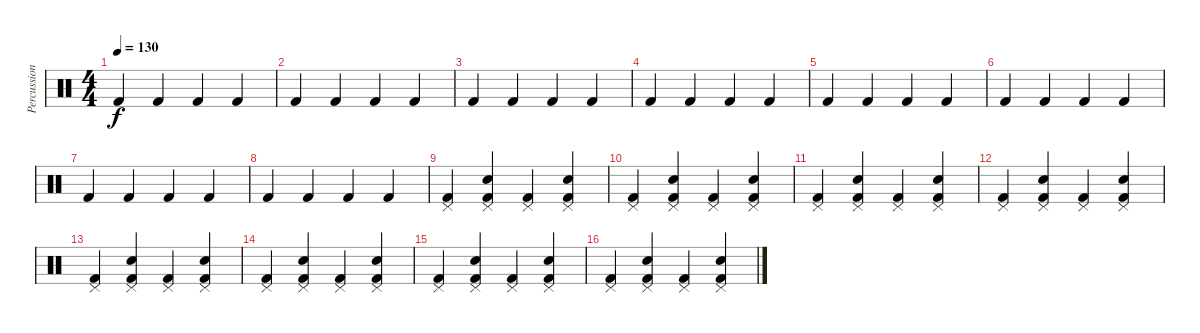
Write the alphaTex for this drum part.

\track ("Percussions" "Percussion") {instrument percussion}
\staff {score}
\articulation defaults
\ts (4 4)
\tempo 130
\clef neutral
\ks c "Kick (hit) 2".4{dy f} "Kick (hit) 2".4 "Kick (hit) 2".4 "Kick (hit) 2".4
|
"Kick (hit) 2".4 "Kick (hit) 2".4 "Kick (hit) 2".4 "Kick (hit) 2".4 |
"Kick (hit) 2".4 "Kick (hit) 2".4 "Kick (hit) 2".4 "Kick (hit) 2".4 |
"Kick (hit) 2".4 "Kick (hit) 2".4 "Kick (hit) 2".4 "Kick (hit) 2".4 |
"Kick (hit) 2".4 "Kick (hit) 2".4 "Kick (hit) 2".4 "Kick (hit) 2".4 |
"Kick (hit) 2".4 "Kick (hit) 2".4 "Kick (hit) 2".4 "Kick (hit) 2".4 |
"Kick (hit) 2".4 "Kick (hit) 2".4 "Kick (hit) 2".4 "Kick (hit) 2".4 |
"Kick (hit) 2".4 "Kick (hit) 2".4 "Kick (hit) 2".4 "Kick (hit) 2".4 |
("Pedal Hi-Hat (hit)" "Kick (hit) 2").4 ("Pedal Hi-Hat (hit)" "Snare (hit) 2" "Kick (hit) 2").4 ("Pedal Hi-Hat (hit)" "Kick (hit) 2").4 ("Pedal Hi-Hat (hit)" "Snare (hit) 2" "Kick (hit) 2").4 |
("Pedal Hi-Hat (hit)" "Kick (hit) 2").4 ("Pedal Hi-Hat (hit)" "Snare (hit) 2" "Kick (hit) 2").4 ("Pedal Hi-Hat (hit)" "Kick (hit) 2").4 ("Pedal Hi-Hat (hit)" "Snare (hit) 2" "Kick (hit) 2").4 |
("Pedal Hi-Hat (hit)" "Kick (hit) 2").4 ("Pedal Hi-Hat (hit)" "Snare (hit) 2" "Kick (hit) 2").4 ("Pedal Hi-Hat (hit)" "Kick (hit) 2").4 ("Pedal Hi-Hat (hit)" "Snare (hit) 2" "Kick (hit) 2").4 |
("Pedal Hi-Hat (hit)" "Kick (hit) 2").4 ("Pedal Hi-Hat (hit)" "Snare (hit) 2" "Kick (hit) 2").4 ("Pedal Hi-Hat (hit)" "Kick (hit) 2").4 ("Pedal Hi-Hat (hit)" "Snare (hit) 2" "Kick (hit) 2").4 |
("Pedal Hi-Hat (hit)" "Kick (hit) 2").4 ("Pedal Hi-Hat (hit)" "Snare (hit) 2" "Kick (hit) 2").4 ("Pedal Hi-Hat (hit)" "Kick (hit) 2").4 ("Pedal Hi-Hat (hit)" "Snare (hit) 2" "Kick (hit) 2").4 |
("Pedal Hi-Hat (hit)" "Kick (hit) 2").4 ("Pedal Hi-Hat (hit)" "Snare (hit) 2" "Kick (hit) 2").4 ("Pedal Hi-Hat (hit)" "Kick (hit) 2").4 ("Pedal Hi-Hat (hit)" "Snare (hit) 2" "Kick (hit) 2").4 |
("Pedal Hi-Hat (hit)" "Kick (hit) 2").4 ("Pedal Hi-Hat (hit)" "Snare (hit) 2" "Kick (hit) 2").4 ("Pedal Hi-Hat (hit)" "Kick (hit) 2").4 ("Pedal Hi-Hat (hit)" "Snare (hit) 2" "Kick (hit) 2").4 |
("Pedal Hi-Hat (hit)" "Kick (hit) 2").4 ("Pedal Hi-Hat (hit)" "Snare (hit) 2" "Kick (hit) 2").4 ("Pedal Hi-Hat (hit)" "Kick (hit) 2").4 ("Pedal Hi-Hat (hit)" "Snare (hit) 2" "Kick (hit) 2").4
